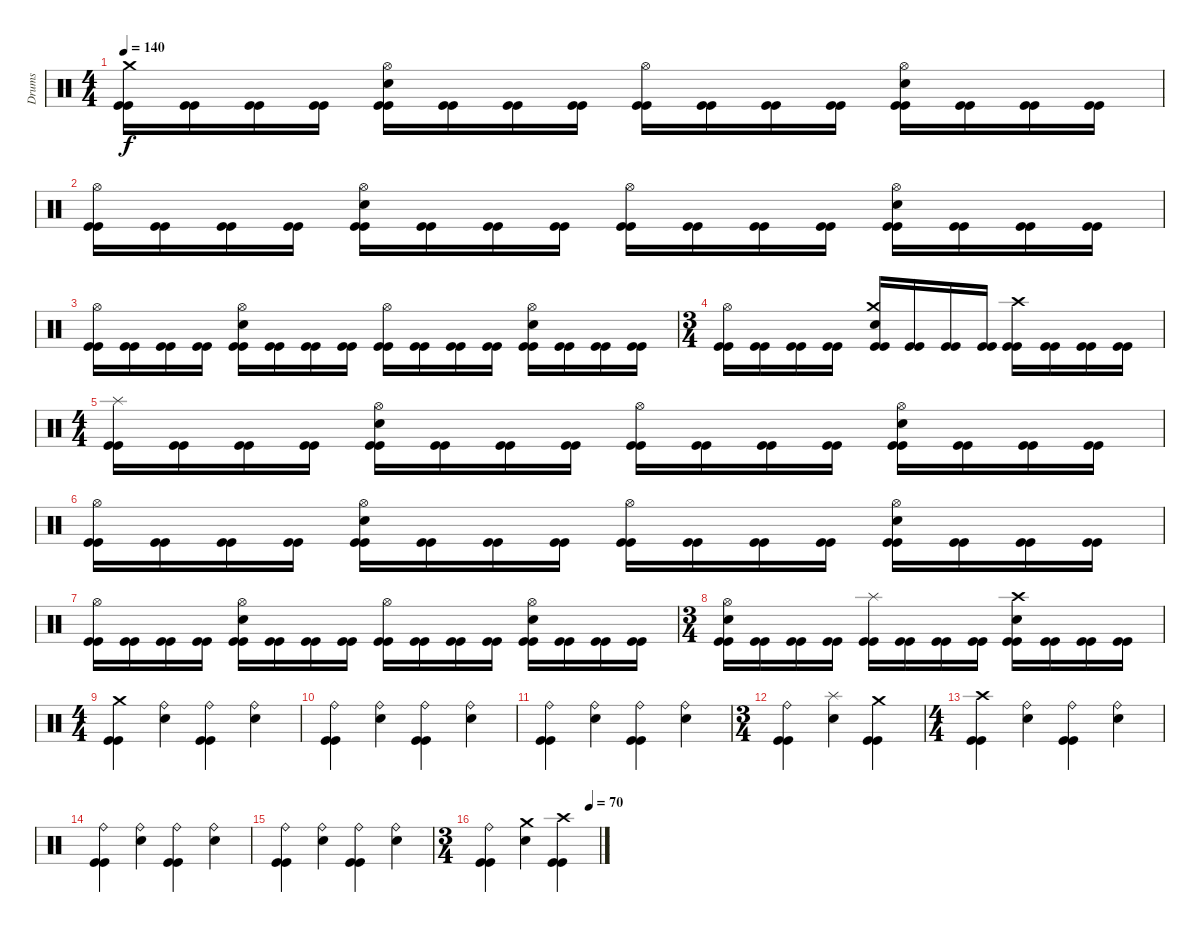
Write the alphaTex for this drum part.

\track ("Drums" "Drums") {instrument percussion}
\staff {score}
\articulation defaults
\ts (4 4)
\tempo 140
\clef neutral
\ks c
("Kick (hit)" "Kick (hit)" "Crash medium (hit)").16{dy f} ("Kick (hit)" "Kick (hit)").16 ("Kick (hit)" "Kick (hit)").16 ("Kick (hit)" "Kick (hit)").16 ("Kick (hit)" "Kick (hit)" "Snare (hit) 2" "Hi-Hat (open)").16 ("Kick (hit)" "Kick (hit)").16 ("Kick (hit)" "Kick (hit)").16 ("Kick (hit)" "Kick (hit)").16 ("Kick (hit)" "Kick (hit)" "Hi-Hat (open)").16 ("Kick (hit)" "Kick (hit)").16 ("Kick (hit)" "Kick (hit)").16 ("Kick (hit)" "Kick (hit)").16 ("Kick (hit)" "Kick (hit)" "Snare (hit) 2" "Hi-Hat (open)").16 ("Kick (hit)" "Kick (hit)").16 ("Kick (hit)" "Kick (hit)").16 ("Kick (hit)" "Kick (hit)").16 |
("Kick (hit)" "Kick (hit)" "Hi-Hat (open)").16 ("Kick (hit)" "Kick (hit)").16 ("Kick (hit)" "Kick (hit)").16 ("Kick (hit)" "Kick (hit)").16 ("Kick (hit)" "Kick (hit)" "Snare (hit) 2" "Hi-Hat (open)").16 ("Kick (hit)" "Kick (hit)").16 ("Kick (hit)" "Kick (hit)").16 ("Kick (hit)" "Kick (hit)").16 ("Kick (hit)" "Kick (hit)" "Hi-Hat (open)").16 ("Kick (hit)" "Kick (hit)").16 ("Kick (hit)" "Kick (hit)").16 ("Kick (hit)" "Kick (hit)").16 ("Kick (hit)" "Kick (hit)" "Snare (hit) 2" "Hi-Hat (open)").16 ("Kick (hit)" "Kick (hit)").16 ("Kick (hit)" "Kick (hit)").16 ("Kick (hit)" "Kick (hit)").16 |
("Kick (hit)" "Kick (hit)" "Hi-Hat (open)").16 ("Kick (hit)" "Kick (hit)").16 ("Kick (hit)" "Kick (hit)").16 ("Kick (hit)" "Kick (hit)").16 ("Kick (hit)" "Kick (hit)" "Snare (hit) 2" "Hi-Hat (open)").16 ("Kick (hit)" "Kick (hit)").16 ("Kick (hit)" "Kick (hit)").16 ("Kick (hit)" "Kick (hit)").16 ("Kick (hit)" "Kick (hit)" "Hi-Hat (open)").16 ("Kick (hit)" "Kick (hit)").16 ("Kick (hit)" "Kick (hit)").16 ("Kick (hit)" "Kick (hit)").16 ("Kick (hit)" "Kick (hit)" "Snare (hit) 2" "Hi-Hat (open)").16 ("Kick (hit)" "Kick (hit)").16 ("Kick (hit)" "Kick (hit)").16 ("Kick (hit)" "Kick (hit)").16 |
\ts (3 4)
("Kick (hit)" "Kick (hit)" "Hi-Hat (open)").16 ("Kick (hit)" "Kick (hit)").16 ("Kick (hit)" "Kick (hit)").16 ("Kick (hit)" "Kick (hit)").16 ("Kick (hit)" "Kick (hit)" "Snare (hit) 2" "Crash medium (hit)").16 ("Kick (hit)" "Kick (hit)").16 ("Kick (hit)" "Kick (hit)").16 ("Kick (hit)" "Kick (hit)").16 ("Kick (hit)" "Kick (hit)" "Crash high (hit)").16 ("Kick (hit)" "Kick (hit)").16 ("Kick (hit)" "Kick (hit)").16 ("Kick (hit)" "Kick (hit)").16 |
\ts (4 4)
("Kick (hit)" "Kick (hit)" "Splash (hit)").16 ("Kick (hit)" "Kick (hit)").16 ("Kick (hit)" "Kick (hit)").16 ("Kick (hit)" "Kick (hit)").16 ("Kick (hit)" "Kick (hit)" "Snare (hit) 2" "Hi-Hat (open)").16 ("Kick (hit)" "Kick (hit)").16 ("Kick (hit)" "Kick (hit)").16 ("Kick (hit)" "Kick (hit)").16 ("Kick (hit)" "Kick (hit)" "Hi-Hat (open)").16 ("Kick (hit)" "Kick (hit)").16 ("Kick (hit)" "Kick (hit)").16 ("Kick (hit)" "Kick (hit)").16 ("Kick (hit)" "Kick (hit)" "Snare (hit) 2" "Hi-Hat (open)").16 ("Kick (hit)" "Kick (hit)").16 ("Kick (hit)" "Kick (hit)").16 ("Kick (hit)" "Kick (hit)").16 |
("Kick (hit)" "Kick (hit)" "Hi-Hat (open)").16 ("Kick (hit)" "Kick (hit)").16 ("Kick (hit)" "Kick (hit)").16 ("Kick (hit)" "Kick (hit)").16 ("Kick (hit)" "Kick (hit)" "Snare (hit) 2" "Hi-Hat (open)").16 ("Kick (hit)" "Kick (hit)").16 ("Kick (hit)" "Kick (hit)").16 ("Kick (hit)" "Kick (hit)").16 ("Kick (hit)" "Kick (hit)" "Hi-Hat (open)").16 ("Kick (hit)" "Kick (hit)").16 ("Kick (hit)" "Kick (hit)").16 ("Kick (hit)" "Kick (hit)").16 ("Kick (hit)" "Kick (hit)" "Snare (hit) 2" "Hi-Hat (open)").16 ("Kick (hit)" "Kick (hit)").16 ("Kick (hit)" "Kick (hit)").16 ("Kick (hit)" "Kick (hit)").16 |
("Kick (hit)" "Kick (hit)" "Hi-Hat (open)").16 ("Kick (hit)" "Kick (hit)").16 ("Kick (hit)" "Kick (hit)").16 ("Kick (hit)" "Kick (hit)").16 ("Kick (hit)" "Kick (hit)" "Snare (hit) 2" "Hi-Hat (open)").16 ("Kick (hit)" "Kick (hit)").16 ("Kick (hit)" "Kick (hit)").16 ("Kick (hit)" "Kick (hit)").16 ("Kick (hit)" "Kick (hit)" "Hi-Hat (open)").16 ("Kick (hit)" "Kick (hit)").16 ("Kick (hit)" "Kick (hit)").16 ("Kick (hit)" "Kick (hit)").16 ("Kick (hit)" "Kick (hit)" "Snare (hit) 2" "Hi-Hat (open)").16 ("Kick (hit)" "Kick (hit)").16 ("Kick (hit)" "Kick (hit)").16 ("Kick (hit)" "Kick (hit)").16 |
\ts (3 4)
("Kick (hit)" "Kick (hit)" "Snare (hit) 2" "Hi-Hat (open)").16 ("Kick (hit)" "Kick (hit)").16 ("Kick (hit)" "Kick (hit)").16 ("Kick (hit)" "Kick (hit)").16 ("Kick (hit)" "Kick (hit)" "Splash (hit)").16 ("Kick (hit)" "Kick (hit)").16 ("Kick (hit)" "Kick (hit)").16 ("Kick (hit)" "Kick (hit)").16 ("Kick (hit)" "Kick (hit)" "Snare (hit) 2" "Crash high (hit)").16 ("Kick (hit)" "Kick (hit)").16 ("Kick (hit)" "Kick (hit)").16 ("Kick (hit)" "Kick (hit)").16 |
\ts (4 4)
("Kick (hit)" "Kick (hit)" "Crash medium (hit)").4 ("Snare (hit) 2" "Ride (bell)").4 ("Kick (hit)" "Kick (hit)" "Ride (bell)").4 ("Snare (hit) 2" "Ride (bell)").4 |
("Kick (hit)" "Kick (hit)" "Ride (bell)").4 ("Snare (hit) 2" "Ride (bell)").4 ("Kick (hit)" "Kick (hit)" "Ride (bell)").4 ("Snare (hit) 2" "Ride (bell)").4 |
("Kick (hit)" "Kick (hit)" "Ride (bell)").4 ("Snare (hit) 2" "Ride (bell)").4 ("Kick (hit)" "Kick (hit)" "Ride (bell)").4 ("Snare (hit) 2" "Ride (bell)").4 |
\ts (3 4)
("Kick (hit)" "Kick (hit)" "Ride (bell)").4 ("Snare (hit) 2" "Splash (hit)").4 ("Kick (hit)" "Kick (hit)" "Crash medium (hit)").4 |
\ts (4 4)
("Kick (hit)" "Kick (hit)" "Crash high (hit)").4 ("Snare (hit) 2" "Ride (bell)").4 ("Kick (hit)" "Kick (hit)" "Ride (bell)").4 ("Snare (hit) 2" "Ride (bell)").4 |
("Kick (hit)" "Kick (hit)" "Ride (bell)").4 ("Snare (hit) 2" "Ride (bell)").4 ("Kick (hit)" "Kick (hit)" "Ride (bell)").4 ("Snare (hit) 2" "Ride (bell)").4 |
("Kick (hit)" "Kick (hit)" "Ride (bell)").4 ("Snare (hit) 2" "Ride (bell)").4 ("Kick (hit)" "Kick (hit)" "Ride (bell)").4 ("Snare (hit) 2" "Ride (bell)").4 |
\ts (3 4)
\tempo (70 0.9166666666666666)
("Kick (hit)" "Kick (hit)" "Ride (bell)").4 ("Snare (hit) 2" "Crash medium (hit)").4 ("Kick (hit)" "Kick (hit)" "Crash high (hit)").4
